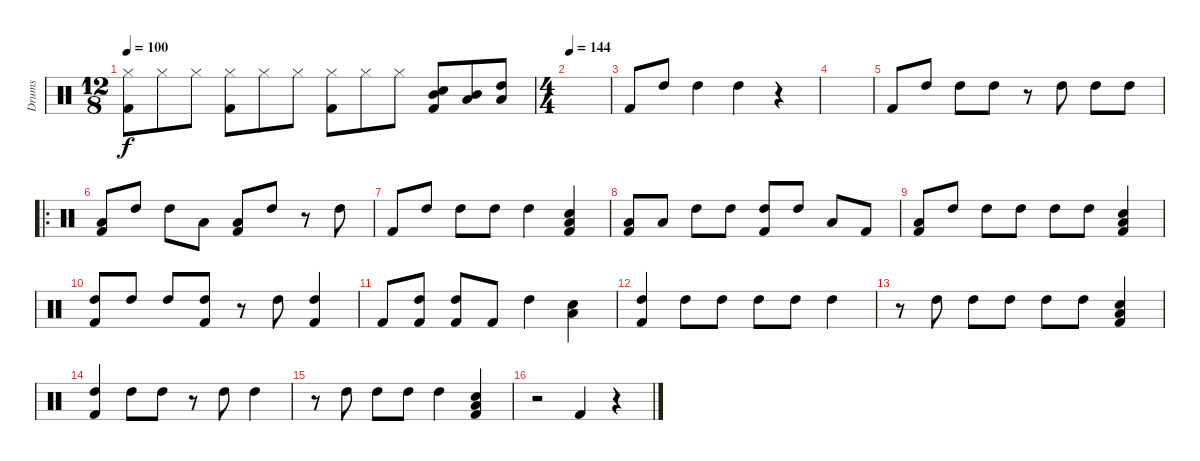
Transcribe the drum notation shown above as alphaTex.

\track ("Drums" "Drums") {instrument percussion}
\staff {score}
\articulation defaults
\ts (12 8)
\tempo 100
\clef neutral
\ks c
("Hi-Hat (closed)" "Kick (hit) 2").8{dy f} "Hi-Hat (closed)".8 "Hi-Hat (closed)".8 ("Hi-Hat (closed)" "Kick (hit) 2").8 "Hi-Hat (closed)".8 "Hi-Hat (closed)".8 ("Hi-Hat (closed)" "Kick (hit) 2").8 "Hi-Hat (closed)".8 "Hi-Hat (closed)".8 ("Mid Tom (hit)" "Snare (hit) 2" "Kick (hit) 2").8 ("Mid Tom (hit)" "Low Tom (hit)").8 ("High Tom (hit)" "Low Tom (hit)").8 |
\ts (4 4)
\tempo 144
|
"Kick (hit) 2".8 "High Tom (hit)".8 "High Tom (hit)".4 "High Tom (hit)".4 r.4 |
|
"Kick (hit) 2".8 "High Tom (hit)".8 "High Tom (hit)".8 "High Tom (hit)".8 r.8 "High Tom (hit)".8 "High Tom (hit)".8 "High Tom (hit)".8 |
\ro
("Low Tom (hit)" "Kick (hit) 2").8 "High Tom (hit)".8 "High Tom (hit)".8 "Low Tom (hit)".8 ("Low Tom (hit)" "Kick (hit) 2").8 "High Tom (hit)".8 r.8 "High Tom (hit)".8 |
"Kick (hit) 2".8 "High Tom (hit)".8 "High Tom (hit)".8 "High Tom (hit)".8 "High Tom (hit)".4 ("Snare (hit) 2" "Low Tom (hit)" "Kick (hit) 2").4 |
("Low Tom (hit)" "Kick (hit) 2").8 "Low Tom (hit)".8 "High Tom (hit)".8 "High Tom (hit)".8 ("High Tom (hit)" "Kick (hit) 2").8 "High Tom (hit)".8 "Low Tom (hit)".8 "Kick (hit) 2".8 |
("Low Tom (hit)" "Kick (hit) 2").8 "High Tom (hit)".8 "High Tom (hit)".8 "High Tom (hit)".8 "High Tom (hit)".8 "High Tom (hit)".8 ("Snare (hit) 2" "Low Tom (hit)" "Kick (hit) 2").4 |
("High Tom (hit)" "Kick (hit) 2").8 "High Tom (hit)".8 "High Tom (hit)".8 ("High Tom (hit)" "Kick (hit) 2").8 r.8 "High Tom (hit)".8 ("High Tom (hit)" "Kick (hit) 2").4 |
"Kick (hit) 2".8 ("High Tom (hit)" "Kick (hit) 2").8 ("High Tom (hit)" "Kick (hit) 2").8 "Kick (hit) 2".8 "High Tom (hit)".4 ("Snare (hit) 2" "Low Tom (hit)").4 |
("High Tom (hit)" "Kick (hit) 2").4 "High Tom (hit)".8 "High Tom (hit)".8 "High Tom (hit)".8 "High Tom (hit)".8 "High Tom (hit)".4 |
r.8 "High Tom (hit)".8 "High Tom (hit)".8 "High Tom (hit)".8 "High Tom (hit)".8 "High Tom (hit)".8 ("Snare (hit) 2" "Low Tom (hit)" "Kick (hit) 2").4 |
("High Tom (hit)" "Kick (hit) 2").4 "High Tom (hit)".8 "High Tom (hit)".8 r.8 "High Tom (hit)".8 "High Tom (hit)".4 |
r.8 "High Tom (hit)".8 "High Tom (hit)".8 "High Tom (hit)".8 "High Tom (hit)".4 ("Snare (hit) 2" "Low Tom (hit)" "Kick (hit) 2").4 |
r.2 "Kick (hit) 2".4 r.4
